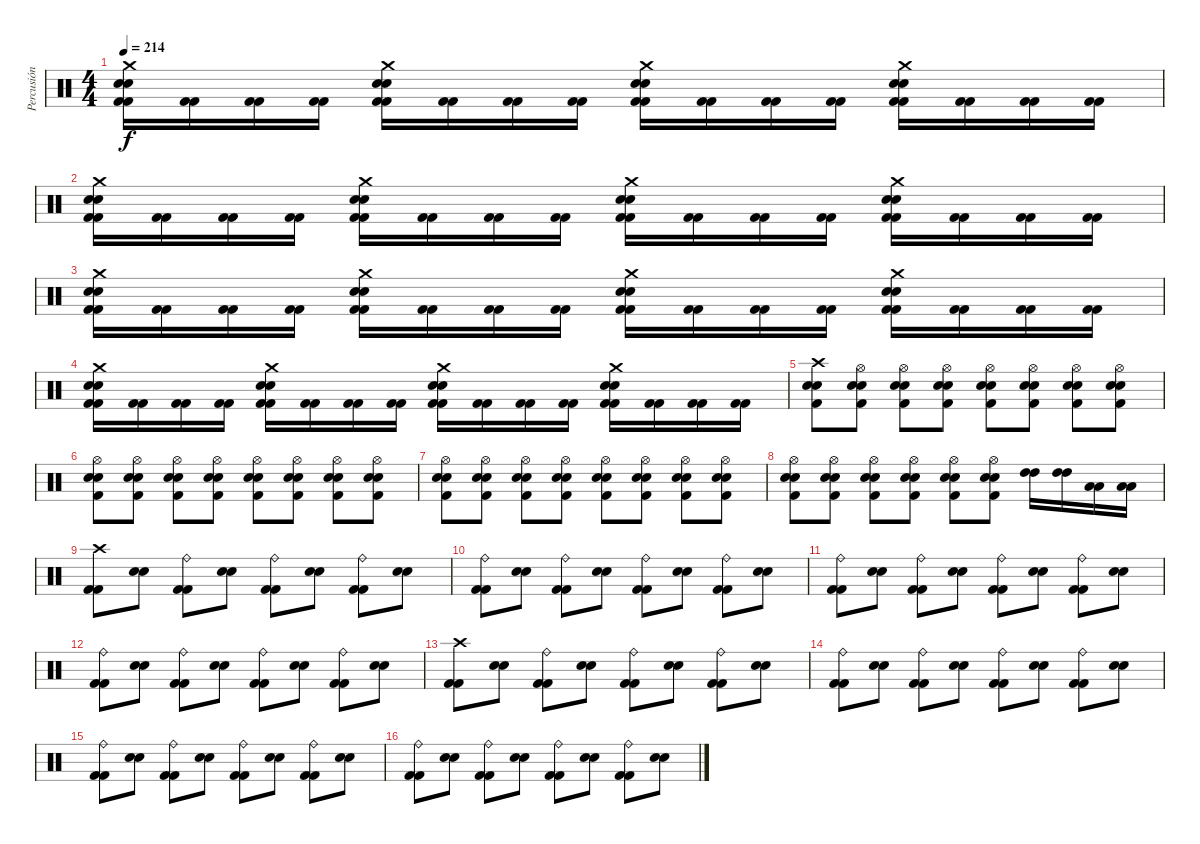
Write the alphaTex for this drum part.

\track ("Percusión" "Percusión") {instrument percussion}
\staff {score}
\articulation defaults
\ts (4 4)
\tempo 214
\clef neutral
\ks c
("Kick (hit) 2" "Kick (hit) 2" "Electric Snare (hit)" "Electric Snare (hit)" "Crash medium (hit)").16{dy f} ("Kick (hit) 2" "Kick (hit) 2").16 ("Kick (hit) 2" "Kick (hit) 2").16 ("Kick (hit) 2" "Kick (hit) 2").16 ("Kick (hit) 2" "Kick (hit) 2" "Electric Snare (hit)" "Electric Snare (hit)" "Crash medium (hit)").16 ("Kick (hit) 2" "Kick (hit) 2").16 ("Kick (hit) 2" "Kick (hit) 2").16 ("Kick (hit) 2" "Kick (hit) 2").16 ("Kick (hit) 2" "Kick (hit) 2" "Electric Snare (hit)" "Electric Snare (hit)" "Crash medium (hit)").16 ("Kick (hit) 2" "Kick (hit) 2").16 ("Kick (hit) 2" "Kick (hit) 2").16 ("Kick (hit) 2" "Kick (hit) 2").16 ("Kick (hit) 2" "Kick (hit) 2" "Electric Snare (hit)" "Electric Snare (hit)" "Crash medium (hit)").16 ("Kick (hit) 2" "Kick (hit) 2").16 ("Kick (hit) 2" "Kick (hit) 2").16 ("Kick (hit) 2" "Kick (hit) 2").16 |
("Kick (hit) 2" "Kick (hit) 2" "Electric Snare (hit)" "Electric Snare (hit)" "Crash medium (hit)").16 ("Kick (hit) 2" "Kick (hit) 2").16 ("Kick (hit) 2" "Kick (hit) 2").16 ("Kick (hit) 2" "Kick (hit) 2").16 ("Kick (hit) 2" "Kick (hit) 2" "Electric Snare (hit)" "Electric Snare (hit)" "Crash medium (hit)").16 ("Kick (hit) 2" "Kick (hit) 2").16 ("Kick (hit) 2" "Kick (hit) 2").16 ("Kick (hit) 2" "Kick (hit) 2").16 ("Kick (hit) 2" "Kick (hit) 2" "Electric Snare (hit)" "Electric Snare (hit)" "Crash medium (hit)").16 ("Kick (hit) 2" "Kick (hit) 2").16 ("Kick (hit) 2" "Kick (hit) 2").16 ("Kick (hit) 2" "Kick (hit) 2").16 ("Kick (hit) 2" "Kick (hit) 2" "Electric Snare (hit)" "Electric Snare (hit)" "Crash medium (hit)").16 ("Kick (hit) 2" "Kick (hit) 2").16 ("Kick (hit) 2" "Kick (hit) 2").16 ("Kick (hit) 2" "Kick (hit) 2").16 |
("Kick (hit) 2" "Kick (hit) 2" "Electric Snare (hit)" "Electric Snare (hit)" "Crash medium (hit)").16 ("Kick (hit) 2" "Kick (hit) 2").16 ("Kick (hit) 2" "Kick (hit) 2").16 ("Kick (hit) 2" "Kick (hit) 2").16 ("Kick (hit) 2" "Kick (hit) 2" "Electric Snare (hit)" "Electric Snare (hit)" "Crash medium (hit)").16 ("Kick (hit) 2" "Kick (hit) 2").16 ("Kick (hit) 2" "Kick (hit) 2").16 ("Kick (hit) 2" "Kick (hit) 2").16 ("Kick (hit) 2" "Kick (hit) 2" "Electric Snare (hit)" "Electric Snare (hit)" "Crash medium (hit)").16 ("Kick (hit) 2" "Kick (hit) 2").16 ("Kick (hit) 2" "Kick (hit) 2").16 ("Kick (hit) 2" "Kick (hit) 2").16 ("Kick (hit) 2" "Kick (hit) 2" "Electric Snare (hit)" "Electric Snare (hit)" "Crash medium (hit)").16 ("Kick (hit) 2" "Kick (hit) 2").16 ("Kick (hit) 2" "Kick (hit) 2").16 ("Kick (hit) 2" "Kick (hit) 2").16 |
("Kick (hit) 2" "Kick (hit) 2" "Electric Snare (hit)" "Electric Snare (hit)" "Crash medium (hit)").16 ("Kick (hit) 2" "Kick (hit) 2").16 ("Kick (hit) 2" "Kick (hit) 2").16 ("Kick (hit) 2" "Kick (hit) 2").16 ("Kick (hit) 2" "Kick (hit) 2" "Electric Snare (hit)" "Electric Snare (hit)" "Crash medium (hit)").16 ("Kick (hit) 2" "Kick (hit) 2").16 ("Kick (hit) 2" "Kick (hit) 2").16 ("Kick (hit) 2" "Kick (hit) 2").16 ("Kick (hit) 2" "Kick (hit) 2" "Electric Snare (hit)" "Electric Snare (hit)" "Crash medium (hit)").16 ("Kick (hit) 2" "Kick (hit) 2").16 ("Kick (hit) 2" "Kick (hit) 2").16 ("Kick (hit) 2" "Kick (hit) 2").16 ("Kick (hit) 2" "Kick (hit) 2" "Electric Snare (hit)" "Electric Snare (hit)" "Crash medium (hit)").16 ("Kick (hit) 2" "Kick (hit) 2").16 ("Kick (hit) 2" "Kick (hit) 2").16 ("Kick (hit) 2" "Kick (hit) 2").16 |
("Kick (hit) 2" "Electric Snare (hit)" "Electric Snare (hit)" "Crash high (hit)").8 ("Kick (hit) 2" "Electric Snare (hit)" "Electric Snare (hit)" "Hi-Hat (open)").8 ("Kick (hit) 2" "Electric Snare (hit)" "Electric Snare (hit)" "Hi-Hat (open)").8 ("Kick (hit) 2" "Electric Snare (hit)" "Electric Snare (hit)" "Hi-Hat (open)").8 ("Kick (hit) 2" "Electric Snare (hit)" "Electric Snare (hit)" "Hi-Hat (open)").8 ("Kick (hit) 2" "Electric Snare (hit)" "Electric Snare (hit)" "Hi-Hat (open)").8 ("Kick (hit) 2" "Electric Snare (hit)" "Electric Snare (hit)" "Hi-Hat (open)").8 ("Kick (hit) 2" "Electric Snare (hit)" "Electric Snare (hit)" "Hi-Hat (open)").8 |
("Kick (hit) 2" "Electric Snare (hit)" "Electric Snare (hit)" "Hi-Hat (open)").8 ("Kick (hit) 2" "Electric Snare (hit)" "Electric Snare (hit)" "Hi-Hat (open)").8 ("Kick (hit) 2" "Electric Snare (hit)" "Electric Snare (hit)" "Hi-Hat (open)").8 ("Kick (hit) 2" "Electric Snare (hit)" "Electric Snare (hit)" "Hi-Hat (open)").8 ("Kick (hit) 2" "Electric Snare (hit)" "Electric Snare (hit)" "Hi-Hat (open)").8 ("Kick (hit) 2" "Electric Snare (hit)" "Electric Snare (hit)" "Hi-Hat (open)").8 ("Kick (hit) 2" "Electric Snare (hit)" "Electric Snare (hit)" "Hi-Hat (open)").8 ("Kick (hit) 2" "Electric Snare (hit)" "Electric Snare (hit)" "Hi-Hat (open)").8 |
("Kick (hit) 2" "Electric Snare (hit)" "Electric Snare (hit)" "Hi-Hat (open)").8 ("Kick (hit) 2" "Electric Snare (hit)" "Electric Snare (hit)" "Hi-Hat (open)").8 ("Kick (hit) 2" "Electric Snare (hit)" "Electric Snare (hit)" "Hi-Hat (open)").8 ("Kick (hit) 2" "Electric Snare (hit)" "Electric Snare (hit)" "Hi-Hat (open)").8 ("Kick (hit) 2" "Electric Snare (hit)" "Electric Snare (hit)" "Hi-Hat (open)").8 ("Kick (hit) 2" "Electric Snare (hit)" "Electric Snare (hit)" "Hi-Hat (open)").8 ("Kick (hit) 2" "Electric Snare (hit)" "Electric Snare (hit)" "Hi-Hat (open)").8 ("Kick (hit) 2" "Electric Snare (hit)" "Electric Snare (hit)" "Hi-Hat (open)").8 |
("Kick (hit) 2" "Electric Snare (hit)" "Electric Snare (hit)" "Hi-Hat (open)").8 ("Kick (hit) 2" "Electric Snare (hit)" "Electric Snare (hit)" "Hi-Hat (open)").8 ("Kick (hit) 2" "Electric Snare (hit)" "Electric Snare (hit)" "Hi-Hat (open)").8 ("Kick (hit) 2" "Electric Snare (hit)" "Electric Snare (hit)" "Hi-Hat (open)").8 ("Kick (hit) 2" "Electric Snare (hit)" "Electric Snare (hit)" "Hi-Hat (open)").8 ("Kick (hit) 2" "Electric Snare (hit)" "Electric Snare (hit)" "Hi-Hat (open)").8 ("High Tom (hit)" "High Tom (hit)").16 ("High Tom (hit)" "High Tom (hit)").16 ("Low Floor Tom (hit)" "Low Floor Tom (hit)").16 ("Low Floor Tom (hit)" "Low Floor Tom (hit)").16 |
("Kick (hit) 2" "Kick (hit) 2" "Crash high (hit)").8 ("Electric Snare (hit)" "Electric Snare (hit)").8 ("Kick (hit) 2" "Kick (hit) 2" "Ride (bell)").8 ("Electric Snare (hit)" "Electric Snare (hit)").8 ("Kick (hit) 2" "Kick (hit) 2" "Ride (bell)").8 ("Electric Snare (hit)" "Electric Snare (hit)").8 ("Kick (hit) 2" "Kick (hit) 2" "Ride (bell)").8 ("Electric Snare (hit)" "Electric Snare (hit)").8 |
("Kick (hit) 2" "Kick (hit) 2" "Ride (bell)").8 ("Electric Snare (hit)" "Electric Snare (hit)").8 ("Kick (hit) 2" "Kick (hit) 2" "Ride (bell)").8 ("Electric Snare (hit)" "Electric Snare (hit)").8 ("Kick (hit) 2" "Kick (hit) 2" "Ride (bell)").8 ("Electric Snare (hit)" "Electric Snare (hit)").8 ("Kick (hit) 2" "Kick (hit) 2" "Ride (bell)").8 ("Electric Snare (hit)" "Electric Snare (hit)").8 |
("Kick (hit) 2" "Kick (hit) 2" "Ride (bell)").8 ("Electric Snare (hit)" "Electric Snare (hit)").8 ("Kick (hit) 2" "Kick (hit) 2" "Ride (bell)").8 ("Electric Snare (hit)" "Electric Snare (hit)").8 ("Kick (hit) 2" "Kick (hit) 2" "Ride (bell)").8 ("Electric Snare (hit)" "Electric Snare (hit)").8 ("Kick (hit) 2" "Kick (hit) 2" "Ride (bell)").8 ("Electric Snare (hit)" "Electric Snare (hit)").8 |
("Kick (hit) 2" "Kick (hit) 2" "Ride (bell)").8 ("Electric Snare (hit)" "Electric Snare (hit)").8 ("Kick (hit) 2" "Kick (hit) 2" "Ride (bell)").8 ("Electric Snare (hit)" "Electric Snare (hit)").8 ("Kick (hit) 2" "Kick (hit) 2" "Ride (bell)").8 ("Electric Snare (hit)" "Electric Snare (hit)").8 ("Kick (hit) 2" "Kick (hit) 2" "Ride (bell)").8 ("Electric Snare (hit)" "Electric Snare (hit)").8 |
("Kick (hit) 2" "Kick (hit) 2" "Crash high (hit)").8 ("Electric Snare (hit)" "Electric Snare (hit)").8 ("Kick (hit) 2" "Kick (hit) 2" "Ride (bell)").8 ("Electric Snare (hit)" "Electric Snare (hit)").8 ("Kick (hit) 2" "Kick (hit) 2" "Ride (bell)").8 ("Electric Snare (hit)" "Electric Snare (hit)").8 ("Kick (hit) 2" "Kick (hit) 2" "Ride (bell)").8 ("Electric Snare (hit)" "Electric Snare (hit)").8 |
("Kick (hit) 2" "Kick (hit) 2" "Ride (bell)").8 ("Electric Snare (hit)" "Electric Snare (hit)").8 ("Kick (hit) 2" "Kick (hit) 2" "Ride (bell)").8 ("Electric Snare (hit)" "Electric Snare (hit)").8 ("Kick (hit) 2" "Kick (hit) 2" "Ride (bell)").8 ("Electric Snare (hit)" "Electric Snare (hit)").8 ("Kick (hit) 2" "Kick (hit) 2" "Ride (bell)").8 ("Electric Snare (hit)" "Electric Snare (hit)").8 |
("Kick (hit) 2" "Kick (hit) 2" "Ride (bell)").8 ("Electric Snare (hit)" "Electric Snare (hit)").8 ("Kick (hit) 2" "Kick (hit) 2" "Ride (bell)").8 ("Electric Snare (hit)" "Electric Snare (hit)").8 ("Kick (hit) 2" "Kick (hit) 2" "Ride (bell)").8 ("Electric Snare (hit)" "Electric Snare (hit)").8 ("Kick (hit) 2" "Kick (hit) 2" "Ride (bell)").8 ("Electric Snare (hit)" "Electric Snare (hit)").8 |
("Kick (hit) 2" "Kick (hit) 2" "Ride (bell)").8 ("Electric Snare (hit)" "Electric Snare (hit)").8 ("Kick (hit) 2" "Kick (hit) 2" "Ride (bell)").8 ("Electric Snare (hit)" "Electric Snare (hit)").8 ("Kick (hit) 2" "Kick (hit) 2" "Ride (bell)").8 ("Electric Snare (hit)" "Electric Snare (hit)").8 ("Kick (hit) 2" "Kick (hit) 2" "Ride (bell)").8 ("Electric Snare (hit)" "Electric Snare (hit)").8
